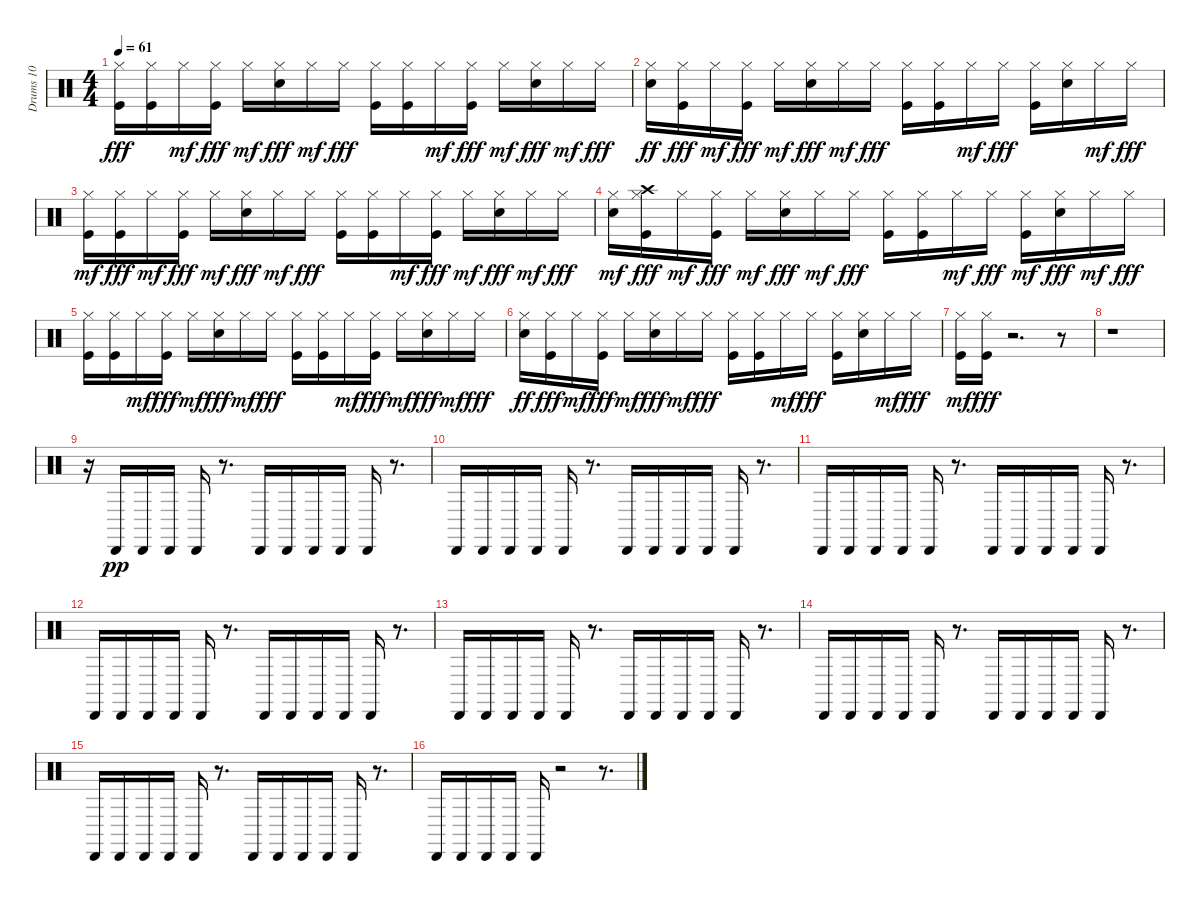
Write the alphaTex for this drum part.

\track ("Drums 10" "Drums 10") {instrument percussion}
\staff {score}
\articulation defaults
\ts (4 4)
\tempo 61
\clef neutral
\ks c
("Hi-Hat (closed)" "Kick (hit)").16{dy fff} ("Hi-Hat (closed)" "Kick (hit)").16 "Hi-Hat (closed)".16{dy mf} ("Hi-Hat (closed)" "Kick (hit)").16{dy fff} "Hi-Hat (closed)".16{dy mf} ("Hi-Hat (closed)" "Metronome (bell)").16{dy fff} "Hi-Hat (closed)".16{dy mf} "Hi-Hat (closed)".16{dy fff} ("Hi-Hat (closed)" "Kick (hit)").16 ("Hi-Hat (closed)" "Kick (hit)").16 "Hi-Hat (closed)".16{dy mf} ("Hi-Hat (closed)" "Kick (hit)").16{dy fff} "Hi-Hat (closed)".16{dy mf} ("Hi-Hat (closed)" "Metronome (bell)").16{dy fff} "Hi-Hat (closed)".16{dy mf} "Hi-Hat (closed)".16{dy fff} |
("Hi-Hat (closed)" "Metronome (bell)").16{dy ff} ("Hi-Hat (closed)" "Kick (hit)").16{dy fff} "Hi-Hat (closed)".16{dy mf} ("Hi-Hat (closed)" "Kick (hit)").16{dy fff volume 16} "Hi-Hat (closed)".16{dy mf} ("Hi-Hat (closed)" "Metronome (bell)").16{dy fff} "Hi-Hat (closed)".16{dy mf} "Hi-Hat (closed)".16{dy fff} ("Hi-Hat (closed)" "Kick (hit)").16 ("Hi-Hat (closed)" "Kick (hit)").16 "Hi-Hat (closed)".16{dy mf} "Hi-Hat (closed)".16{dy fff} ("Hi-Hat (closed)" "Kick (hit)").16 ("Metronome (bell)" "Hi-Hat (closed)").16 "Hi-Hat (closed)".16{dy mf} "Hi-Hat (closed)".16{dy fff} |
("Kick (hit)" "Hi-Hat (closed)").16{dy mf} ("Hi-Hat (closed)" "Kick (hit)").16{dy fff} "Hi-Hat (closed)".16{dy mf} ("Kick (hit)" "Hi-Hat (closed)").16{dy fff} "Hi-Hat (closed)".16{dy mf} ("Hi-Hat (closed)" "Metronome (bell)").16{dy fff} "Hi-Hat (closed)".16{dy mf} "Hi-Hat (closed)".16{dy fff} ("Hi-Hat (closed)" "Kick (hit)").16 ("Hi-Hat (closed)" "Kick (hit)").16 "Hi-Hat (closed)".16{dy mf} ("Kick (hit)" "Hi-Hat (closed)").16{dy fff} "Hi-Hat (closed)".16{dy mf} ("Metronome (bell)" "Hi-Hat (closed)").16{dy fff} "Hi-Hat (closed)".16{dy mf} "Hi-Hat (closed)".16{dy fff} |
("Metronome (bell)" "Hi-Hat (closed)").16{dy mf} ("Crash high (hit)" "Hi-Hat (closed)" "Kick (hit)").16{dy fff} "Hi-Hat (closed)".16{dy mf} ("Hi-Hat (closed)" "Kick (hit)").16{dy fff} "Hi-Hat (closed)".16{dy mf} ("Metronome (bell)" "Hi-Hat (closed)").16{dy fff} "Hi-Hat (closed)".16{dy mf} "Hi-Hat (closed)".16{dy fff} ("Hi-Hat (closed)" "Kick (hit)").16 ("Hi-Hat (closed)" "Kick (hit)").16 "Hi-Hat (closed)".16{dy mf} "Hi-Hat (closed)".16{dy fff} ("Kick (hit)" "Hi-Hat (closed)").16{dy mf} ("Hi-Hat (closed)" "Metronome (bell)").16{dy fff} "Hi-Hat (closed)".16{dy mf} "Hi-Hat (closed)".16{dy fff} |
("Hi-Hat (closed)" "Kick (hit)").16 ("Hi-Hat (closed)" "Kick (hit)").16 "Hi-Hat (closed)".16{dy mf} ("Hi-Hat (closed)" "Kick (hit)").16{dy fff} "Hi-Hat (closed)".16{dy mf} ("Hi-Hat (closed)" "Metronome (bell)").16{dy fff} "Hi-Hat (closed)".16{dy mf} "Hi-Hat (closed)".16{dy fff} ("Hi-Hat (closed)" "Kick (hit)").16 ("Hi-Hat (closed)" "Kick (hit)").16 "Hi-Hat (closed)".16{dy mf} ("Hi-Hat (closed)" "Kick (hit)").16{dy fff} "Hi-Hat (closed)".16{dy mf} ("Hi-Hat (closed)" "Metronome (bell)").16{dy fff} "Hi-Hat (closed)".16{dy mf} "Hi-Hat (closed)".16{dy fff} |
("Hi-Hat (closed)" "Metronome (bell)").16{dy ff} ("Hi-Hat (closed)" "Kick (hit)").16{dy fff} "Hi-Hat (closed)".16{dy mf} ("Hi-Hat (closed)" "Kick (hit)").16{dy fff} "Hi-Hat (closed)".16{dy mf} ("Hi-Hat (closed)" "Metronome (bell)").16{dy fff} "Hi-Hat (closed)".16{dy mf} "Hi-Hat (closed)".16{dy fff} ("Hi-Hat (closed)" "Kick (hit)").16 ("Hi-Hat (closed)" "Kick (hit)").16 "Hi-Hat (closed)".16{dy mf} "Hi-Hat (closed)".16{dy fff} ("Hi-Hat (closed)" "Kick (hit)").16 ("Metronome (bell)" "Hi-Hat (closed)").16 "Hi-Hat (closed)".16{dy mf} "Hi-Hat (closed)".16{dy fff} |
("Kick (hit)" "Hi-Hat (closed)").16{dy mf} ("Hi-Hat (closed)" "Kick (hit)").16{dy fff} r.2{d} r.8 |
r.1 |
r.16 "Cabasa (hit)".16{dy pp} "Cabasa (hit)".16 "Cabasa (hit)".16 "Cabasa (hit)".16 r.8{d} "Cabasa (hit)".16 "Cabasa (hit)".16 "Cabasa (hit)".16 "Cabasa (hit)".16 "Cabasa (hit)".16 r.8{d} |
"Cabasa (hit)".16 "Cabasa (hit)".16 "Cabasa (hit)".16 "Cabasa (hit)".16 "Cabasa (hit)".16 r.8{d} "Cabasa (hit)".16 "Cabasa (hit)".16 "Cabasa (hit)".16 "Cabasa (hit)".16 "Cabasa (hit)".16 r.8{d} |
"Cabasa (hit)".16 "Cabasa (hit)".16 "Cabasa (hit)".16 "Cabasa (hit)".16 "Cabasa (hit)".16 r.8{d} "Cabasa (hit)".16 "Cabasa (hit)".16 "Cabasa (hit)".16 "Cabasa (hit)".16 "Cabasa (hit)".16 r.8{d} |
"Cabasa (hit)".16 "Cabasa (hit)".16 "Cabasa (hit)".16 "Cabasa (hit)".16 "Cabasa (hit)".16 r.8{d} "Cabasa (hit)".16 "Cabasa (hit)".16 "Cabasa (hit)".16 "Cabasa (hit)".16 "Cabasa (hit)".16 r.8{d} |
"Cabasa (hit)".16 "Cabasa (hit)".16 "Cabasa (hit)".16 "Cabasa (hit)".16 "Cabasa (hit)".16 r.8{d} "Cabasa (hit)".16 "Cabasa (hit)".16 "Cabasa (hit)".16 "Cabasa (hit)".16 "Cabasa (hit)".16 r.8{d} |
"Cabasa (hit)".16 "Cabasa (hit)".16 "Cabasa (hit)".16 "Cabasa (hit)".16 "Cabasa (hit)".16 r.8{d} "Cabasa (hit)".16 "Cabasa (hit)".16 "Cabasa (hit)".16 "Cabasa (hit)".16 "Cabasa (hit)".16 r.8{d} |
"Cabasa (hit)".16 "Cabasa (hit)".16 "Cabasa (hit)".16 "Cabasa (hit)".16 "Cabasa (hit)".16 r.8{d} "Cabasa (hit)".16 "Cabasa (hit)".16 "Cabasa (hit)".16 "Cabasa (hit)".16 "Cabasa (hit)".16 r.8{d} |
"Cabasa (hit)".16 "Cabasa (hit)".16 "Cabasa (hit)".16 "Cabasa (hit)".16 "Cabasa (hit)".16 r.2 r.8{d}
